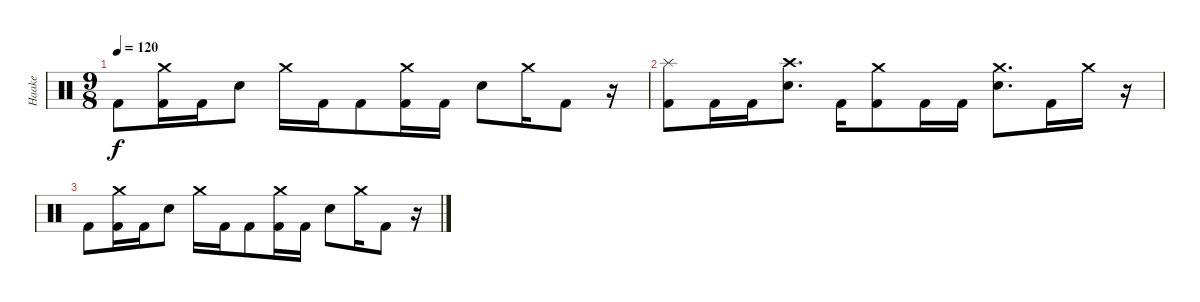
\track ("Haake" "Haake") {instrument percussion}
\staff {score}
\articulation defaults
\ts (9 8)
\tempo 120
\clef neutral
\ks c "Kick (hit) 2".8{dy f}
("Crash medium (hit)" "Kick (hit) 2").16 "Kick (hit) 2".16 "Electric Snare (hit)".8 "Crash medium (hit)".16 "Kick (hit) 2".16 "Kick (hit) 2".8 ("Crash medium (hit)" "Kick (hit) 2").16 "Kick (hit) 2".16 "Electric Snare (hit)".8 "Crash medium (hit)".16 "Kick (hit) 2".8 r.16 |
("Splash (hit)" "Kick (hit) 2").8 "Kick (hit) 2".16 "Kick (hit) 2".16 ("Crash high (hit)" "Electric Snare (hit)").8{d} "Kick (hit) 2".16 ("Crash medium (hit)" "Kick (hit) 2").8 "Kick (hit) 2".16 "Kick (hit) 2".16 ("Crash medium (hit)" "Electric Snare (hit)").8{d} "Kick (hit) 2".16 "Crash medium (hit)".16 r.16 |
"Kick (hit) 2".8 ("Crash medium (hit)" "Kick (hit) 2").16 "Kick (hit) 2".16 "Electric Snare (hit)".8 "Crash medium (hit)".16 "Kick (hit) 2".16 "Kick (hit) 2".8 ("Crash medium (hit)" "Kick (hit) 2").16 "Kick (hit) 2".16 "Electric Snare (hit)".8 "Crash medium (hit)".16 "Kick (hit) 2".8 r.16
